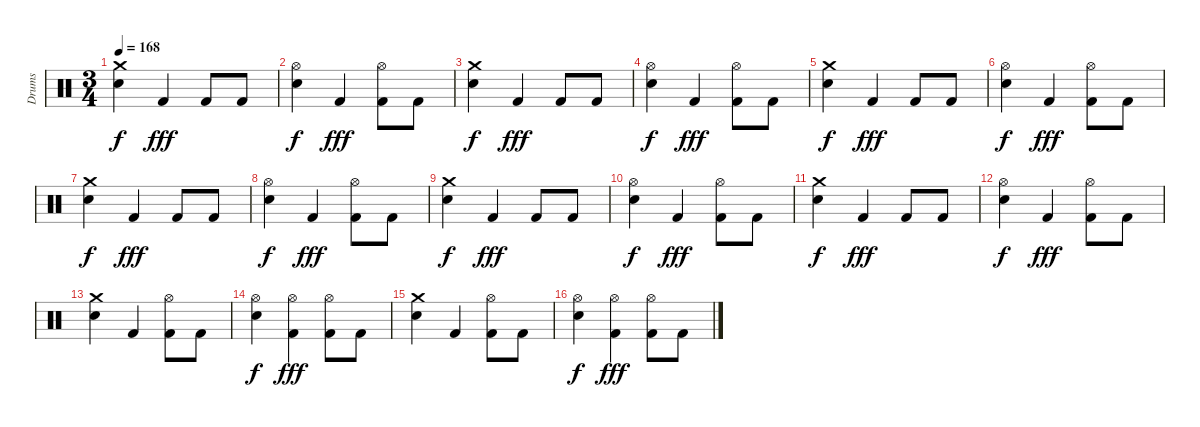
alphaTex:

\track ("Drums" "Drums") {instrument percussion}
\staff {score}
\articulation defaults
\ts (3 4)
\tempo 168
\clef neutral
\ks c
("Crash medium (hit)" "Electric Snare (hit)").4{dy f} "Kick (hit) 2".4{dy fff} "Kick (hit) 2".8 "Kick (hit) 2".8 |
("Hi-Hat (open)" "Electric Snare (hit)").4{dy f} "Kick (hit) 2".4{dy fff} ("Hi-Hat (open)" "Kick (hit) 2").8 "Kick (hit) 2".8 |
("Crash medium (hit)" "Electric Snare (hit)").4{dy f} "Kick (hit) 2".4{dy fff} "Kick (hit) 2".8 "Kick (hit) 2".8 |
("Hi-Hat (open)" "Electric Snare (hit)").4{dy f} "Kick (hit) 2".4{dy fff} ("Hi-Hat (open)" "Kick (hit) 2").8 "Kick (hit) 2".8 |
("Crash medium (hit)" "Electric Snare (hit)").4{dy f} "Kick (hit) 2".4{dy fff} "Kick (hit) 2".8 "Kick (hit) 2".8 |
("Hi-Hat (open)" "Electric Snare (hit)").4{dy f} "Kick (hit) 2".4{dy fff} ("Hi-Hat (open)" "Kick (hit) 2").8 "Kick (hit) 2".8 |
("Crash medium (hit)" "Electric Snare (hit)").4{dy f} "Kick (hit) 2".4{dy fff} "Kick (hit) 2".8 "Kick (hit) 2".8 |
("Hi-Hat (open)" "Electric Snare (hit)").4{dy f} "Kick (hit) 2".4{dy fff} ("Hi-Hat (open)" "Kick (hit) 2").8 "Kick (hit) 2".8 |
("Crash medium (hit)" "Electric Snare (hit)").4{dy f} "Kick (hit) 2".4{dy fff} "Kick (hit) 2".8 "Kick (hit) 2".8 |
("Hi-Hat (open)" "Electric Snare (hit)").4{dy f} "Kick (hit) 2".4{dy fff} ("Hi-Hat (open)" "Kick (hit) 2").8 "Kick (hit) 2".8 |
("Crash medium (hit)" "Electric Snare (hit)").4{dy f} "Kick (hit) 2".4{dy fff} "Kick (hit) 2".8 "Kick (hit) 2".8 |
("Hi-Hat (open)" "Electric Snare (hit)").4{dy f} "Kick (hit) 2".4{dy fff} ("Hi-Hat (open)" "Kick (hit) 2").8 "Kick (hit) 2".8 |
("Crash medium (hit)" "Electric Snare (hit)").4 "Kick (hit) 2".4 ("Hi-Hat (open)" "Kick (hit) 2").8 "Kick (hit) 2".8 |
("Hi-Hat (open)" "Electric Snare (hit)").4{dy f} ("Hi-Hat (open)" "Kick (hit) 2").4{dy fff} ("Hi-Hat (open)" "Kick (hit) 2").8 "Kick (hit) 2".8 |
("Crash medium (hit)" "Electric Snare (hit)").4 "Kick (hit) 2".4 ("Hi-Hat (open)" "Kick (hit) 2").8 "Kick (hit) 2".8 |
("Hi-Hat (open)" "Electric Snare (hit)").4{dy f} ("Hi-Hat (open)" "Kick (hit) 2").4{dy fff} ("Hi-Hat (open)" "Kick (hit) 2").8 "Kick (hit) 2".8
